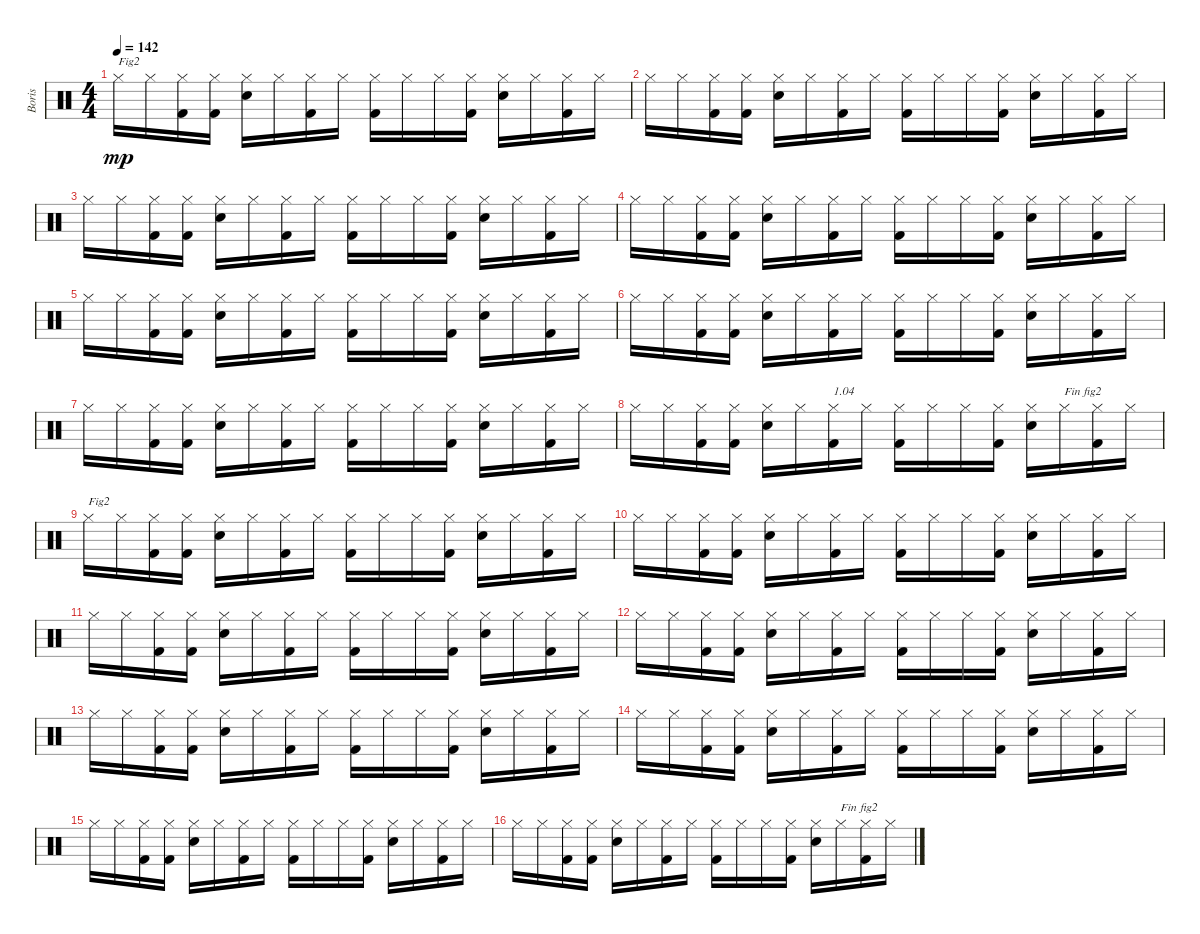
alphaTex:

\track ("Boris" "Boris") {instrument percussion}
\staff {score}
\articulation defaults
\ts (4 4)
\tempo 142
\clef neutral
\ks c "Hi-Hat (closed)".16{txt "Fig2" dy mp} "Hi-Hat (closed)".16
("Kick (hit) 2" "Hi-Hat (closed)").16 ("Kick (hit) 2" "Hi-Hat (closed)").16 ("Snare (hit) 2" "Hi-Hat (closed)").16 "Hi-Hat (closed)".16 ("Kick (hit) 2" "Hi-Hat (closed)").16 "Hi-Hat (closed)".16 ("Kick (hit) 2" "Hi-Hat (closed)").16 "Hi-Hat (closed)".16 "Hi-Hat (closed)".16 ("Kick (hit) 2" "Hi-Hat (closed)").16 ("Snare (hit) 2" "Hi-Hat (closed)").16 "Hi-Hat (closed)".16 ("Kick (hit) 2" "Hi-Hat (closed)").16 "Hi-Hat (closed)".16 |
"Hi-Hat (closed)".16 "Hi-Hat (closed)".16 ("Kick (hit) 2" "Hi-Hat (closed)").16 ("Kick (hit) 2" "Hi-Hat (closed)").16 ("Snare (hit) 2" "Hi-Hat (closed)").16 "Hi-Hat (closed)".16 ("Kick (hit) 2" "Hi-Hat (closed)").16 "Hi-Hat (closed)".16 ("Kick (hit) 2" "Hi-Hat (closed)").16 "Hi-Hat (closed)".16 "Hi-Hat (closed)".16 ("Kick (hit) 2" "Hi-Hat (closed)").16 ("Snare (hit) 2" "Hi-Hat (closed)").16 "Hi-Hat (closed)".16 ("Kick (hit) 2" "Hi-Hat (closed)").16 "Hi-Hat (closed)".16 |
"Hi-Hat (closed)".16 "Hi-Hat (closed)".16 ("Kick (hit) 2" "Hi-Hat (closed)").16 ("Kick (hit) 2" "Hi-Hat (closed)").16 ("Snare (hit) 2" "Hi-Hat (closed)").16 "Hi-Hat (closed)".16 ("Kick (hit) 2" "Hi-Hat (closed)").16 "Hi-Hat (closed)".16 ("Kick (hit) 2" "Hi-Hat (closed)").16 "Hi-Hat (closed)".16 "Hi-Hat (closed)".16 ("Kick (hit) 2" "Hi-Hat (closed)").16 ("Snare (hit) 2" "Hi-Hat (closed)").16 "Hi-Hat (closed)".16 ("Kick (hit) 2" "Hi-Hat (closed)").16 "Hi-Hat (closed)".16 |
"Hi-Hat (closed)".16 "Hi-Hat (closed)".16 ("Kick (hit) 2" "Hi-Hat (closed)").16 ("Kick (hit) 2" "Hi-Hat (closed)").16 ("Snare (hit) 2" "Hi-Hat (closed)").16 "Hi-Hat (closed)".16 ("Kick (hit) 2" "Hi-Hat (closed)").16 "Hi-Hat (closed)".16 ("Kick (hit) 2" "Hi-Hat (closed)").16 "Hi-Hat (closed)".16 "Hi-Hat (closed)".16 ("Kick (hit) 2" "Hi-Hat (closed)").16 ("Snare (hit) 2" "Hi-Hat (closed)").16 "Hi-Hat (closed)".16 ("Kick (hit) 2" "Hi-Hat (closed)").16 "Hi-Hat (closed)".16 |
"Hi-Hat (closed)".16 "Hi-Hat (closed)".16 ("Kick (hit) 2" "Hi-Hat (closed)").16 ("Kick (hit) 2" "Hi-Hat (closed)").16 ("Snare (hit) 2" "Hi-Hat (closed)").16 "Hi-Hat (closed)".16 ("Kick (hit) 2" "Hi-Hat (closed)").16 "Hi-Hat (closed)".16 ("Kick (hit) 2" "Hi-Hat (closed)").16 "Hi-Hat (closed)".16 "Hi-Hat (closed)".16 ("Kick (hit) 2" "Hi-Hat (closed)").16 ("Snare (hit) 2" "Hi-Hat (closed)").16 "Hi-Hat (closed)".16 ("Kick (hit) 2" "Hi-Hat (closed)").16 "Hi-Hat (closed)".16 |
"Hi-Hat (closed)".16 "Hi-Hat (closed)".16 ("Kick (hit) 2" "Hi-Hat (closed)").16 ("Kick (hit) 2" "Hi-Hat (closed)").16 ("Snare (hit) 2" "Hi-Hat (closed)").16 "Hi-Hat (closed)".16 ("Kick (hit) 2" "Hi-Hat (closed)").16 "Hi-Hat (closed)".16 ("Kick (hit) 2" "Hi-Hat (closed)").16 "Hi-Hat (closed)".16 "Hi-Hat (closed)".16 ("Kick (hit) 2" "Hi-Hat (closed)").16 ("Snare (hit) 2" "Hi-Hat (closed)").16 "Hi-Hat (closed)".16 ("Kick (hit) 2" "Hi-Hat (closed)").16 "Hi-Hat (closed)".16 |
"Hi-Hat (closed)".16 "Hi-Hat (closed)".16 ("Kick (hit) 2" "Hi-Hat (closed)").16 ("Kick (hit) 2" "Hi-Hat (closed)").16 ("Snare (hit) 2" "Hi-Hat (closed)").16 "Hi-Hat (closed)".16 ("Kick (hit) 2" "Hi-Hat (closed)").16 "Hi-Hat (closed)".16 ("Kick (hit) 2" "Hi-Hat (closed)").16 "Hi-Hat (closed)".16 "Hi-Hat (closed)".16 ("Kick (hit) 2" "Hi-Hat (closed)").16 ("Snare (hit) 2" "Hi-Hat (closed)").16 "Hi-Hat (closed)".16 ("Kick (hit) 2" "Hi-Hat (closed)").16 "Hi-Hat (closed)".16 |
"Hi-Hat (closed)".16 "Hi-Hat (closed)".16 ("Kick (hit) 2" "Hi-Hat (closed)").16 ("Kick (hit) 2" "Hi-Hat (closed)").16 ("Snare (hit) 2" "Hi-Hat (closed)").16 "Hi-Hat (closed)".16 ("Kick (hit) 2" "Hi-Hat (closed)").16{txt "1.04"} "Hi-Hat (closed)".16 ("Kick (hit) 2" "Hi-Hat (closed)").16 "Hi-Hat (closed)".16 "Hi-Hat (closed)".16 ("Kick (hit) 2" "Hi-Hat (closed)").16 ("Snare (hit) 2" "Hi-Hat (closed)").16 "Hi-Hat (closed)".16{txt "Fin fig2"} ("Kick (hit) 2" "Hi-Hat (closed)").16 "Hi-Hat (closed)".16 |
"Hi-Hat (closed)".16{txt "Fig2"} "Hi-Hat (closed)".16 ("Kick (hit) 2" "Hi-Hat (closed)").16 ("Kick (hit) 2" "Hi-Hat (closed)").16 ("Snare (hit) 2" "Hi-Hat (closed)").16 "Hi-Hat (closed)".16 ("Kick (hit) 2" "Hi-Hat (closed)").16 "Hi-Hat (closed)".16 ("Kick (hit) 2" "Hi-Hat (closed)").16 "Hi-Hat (closed)".16 "Hi-Hat (closed)".16 ("Kick (hit) 2" "Hi-Hat (closed)").16 ("Snare (hit) 2" "Hi-Hat (closed)").16 "Hi-Hat (closed)".16 ("Kick (hit) 2" "Hi-Hat (closed)").16 "Hi-Hat (closed)".16 |
"Hi-Hat (closed)".16 "Hi-Hat (closed)".16 ("Kick (hit) 2" "Hi-Hat (closed)").16 ("Kick (hit) 2" "Hi-Hat (closed)").16 ("Snare (hit) 2" "Hi-Hat (closed)").16 "Hi-Hat (closed)".16 ("Kick (hit) 2" "Hi-Hat (closed)").16 "Hi-Hat (closed)".16 ("Kick (hit) 2" "Hi-Hat (closed)").16 "Hi-Hat (closed)".16 "Hi-Hat (closed)".16 ("Kick (hit) 2" "Hi-Hat (closed)").16 ("Snare (hit) 2" "Hi-Hat (closed)").16 "Hi-Hat (closed)".16 ("Kick (hit) 2" "Hi-Hat (closed)").16 "Hi-Hat (closed)".16 |
"Hi-Hat (closed)".16 "Hi-Hat (closed)".16 ("Kick (hit) 2" "Hi-Hat (closed)").16 ("Kick (hit) 2" "Hi-Hat (closed)").16 ("Snare (hit) 2" "Hi-Hat (closed)").16 "Hi-Hat (closed)".16 ("Kick (hit) 2" "Hi-Hat (closed)").16 "Hi-Hat (closed)".16 ("Kick (hit) 2" "Hi-Hat (closed)").16 "Hi-Hat (closed)".16 "Hi-Hat (closed)".16 ("Kick (hit) 2" "Hi-Hat (closed)").16 ("Snare (hit) 2" "Hi-Hat (closed)").16 "Hi-Hat (closed)".16 ("Kick (hit) 2" "Hi-Hat (closed)").16 "Hi-Hat (closed)".16 |
"Hi-Hat (closed)".16 "Hi-Hat (closed)".16 ("Kick (hit) 2" "Hi-Hat (closed)").16 ("Kick (hit) 2" "Hi-Hat (closed)").16 ("Snare (hit) 2" "Hi-Hat (closed)").16 "Hi-Hat (closed)".16 ("Kick (hit) 2" "Hi-Hat (closed)").16 "Hi-Hat (closed)".16 ("Kick (hit) 2" "Hi-Hat (closed)").16 "Hi-Hat (closed)".16 "Hi-Hat (closed)".16 ("Kick (hit) 2" "Hi-Hat (closed)").16 ("Snare (hit) 2" "Hi-Hat (closed)").16 "Hi-Hat (closed)".16 ("Kick (hit) 2" "Hi-Hat (closed)").16 "Hi-Hat (closed)".16 |
"Hi-Hat (closed)".16 "Hi-Hat (closed)".16 ("Kick (hit) 2" "Hi-Hat (closed)").16 ("Kick (hit) 2" "Hi-Hat (closed)").16 ("Snare (hit) 2" "Hi-Hat (closed)").16 "Hi-Hat (closed)".16 ("Kick (hit) 2" "Hi-Hat (closed)").16 "Hi-Hat (closed)".16 ("Kick (hit) 2" "Hi-Hat (closed)").16 "Hi-Hat (closed)".16 "Hi-Hat (closed)".16 ("Kick (hit) 2" "Hi-Hat (closed)").16 ("Snare (hit) 2" "Hi-Hat (closed)").16 "Hi-Hat (closed)".16 ("Kick (hit) 2" "Hi-Hat (closed)").16 "Hi-Hat (closed)".16 |
"Hi-Hat (closed)".16 "Hi-Hat (closed)".16 ("Kick (hit) 2" "Hi-Hat (closed)").16 ("Kick (hit) 2" "Hi-Hat (closed)").16 ("Snare (hit) 2" "Hi-Hat (closed)").16 "Hi-Hat (closed)".16 ("Kick (hit) 2" "Hi-Hat (closed)").16 "Hi-Hat (closed)".16 ("Kick (hit) 2" "Hi-Hat (closed)").16 "Hi-Hat (closed)".16 "Hi-Hat (closed)".16 ("Kick (hit) 2" "Hi-Hat (closed)").16 ("Snare (hit) 2" "Hi-Hat (closed)").16 "Hi-Hat (closed)".16 ("Kick (hit) 2" "Hi-Hat (closed)").16 "Hi-Hat (closed)".16 |
"Hi-Hat (closed)".16 "Hi-Hat (closed)".16 ("Kick (hit) 2" "Hi-Hat (closed)").16 ("Kick (hit) 2" "Hi-Hat (closed)").16 ("Snare (hit) 2" "Hi-Hat (closed)").16 "Hi-Hat (closed)".16 ("Kick (hit) 2" "Hi-Hat (closed)").16 "Hi-Hat (closed)".16 ("Kick (hit) 2" "Hi-Hat (closed)").16 "Hi-Hat (closed)".16 "Hi-Hat (closed)".16 ("Kick (hit) 2" "Hi-Hat (closed)").16 ("Snare (hit) 2" "Hi-Hat (closed)").16 "Hi-Hat (closed)".16 ("Kick (hit) 2" "Hi-Hat (closed)").16 "Hi-Hat (closed)".16 |
"Hi-Hat (closed)".16 "Hi-Hat (closed)".16 ("Kick (hit) 2" "Hi-Hat (closed)").16 ("Kick (hit) 2" "Hi-Hat (closed)").16 ("Snare (hit) 2" "Hi-Hat (closed)").16 "Hi-Hat (closed)".16 ("Kick (hit) 2" "Hi-Hat (closed)").16 "Hi-Hat (closed)".16 ("Kick (hit) 2" "Hi-Hat (closed)").16 "Hi-Hat (closed)".16 "Hi-Hat (closed)".16 ("Kick (hit) 2" "Hi-Hat (closed)").16 ("Snare (hit) 2" "Hi-Hat (closed)").16 "Hi-Hat (closed)".16{txt "Fin fig2"} ("Kick (hit) 2" "Hi-Hat (closed)").16 "Hi-Hat (closed)".16
